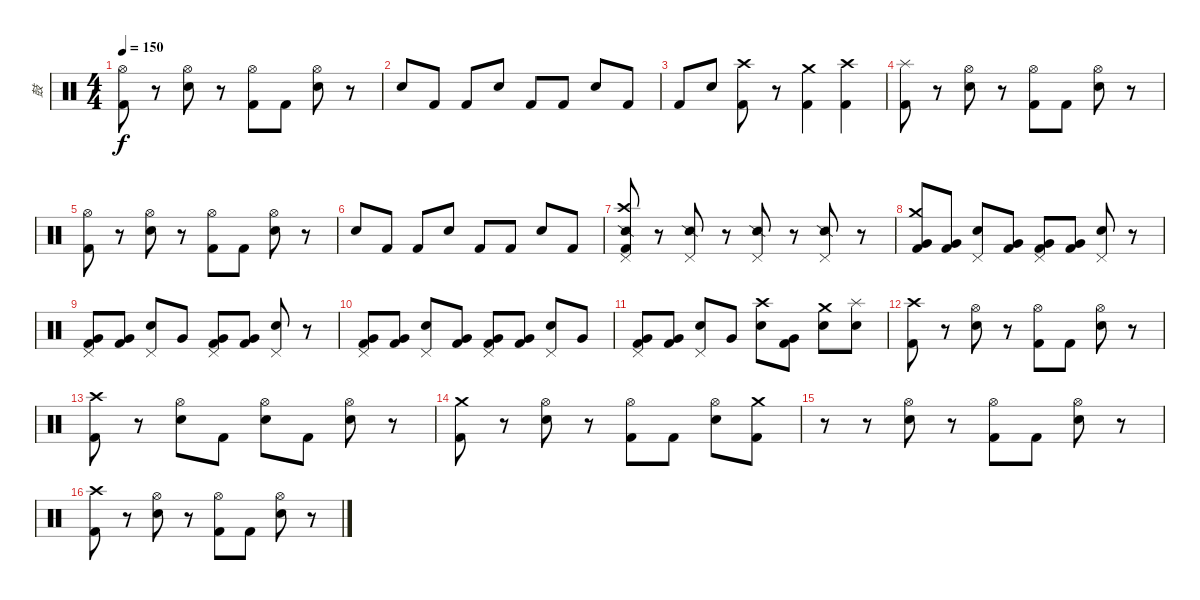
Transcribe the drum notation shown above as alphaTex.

\track ("鼓" "鼓") {instrument percussion}
\staff {score}
\articulation defaults
\ts (4 4)
\tempo 150
\clef neutral
\ks c
("Hi-Hat (open)" "Kick (hit) 2").8{dy f} r.8 ("Hi-Hat (open)" "Electric Snare (hit)").8 r.8 ("Hi-Hat (open)" "Kick (hit) 2").8 "Kick (hit) 2".8 ("Hi-Hat (open)" "Electric Snare (hit)").8 r.8 |
"Electric Snare (hit)".8 "Kick (hit) 2".8 "Kick (hit) 2".8 "Electric Snare (hit)".8 "Kick (hit) 2".8 "Kick (hit) 2".8 "Electric Snare (hit)".8 "Kick (hit) 2".8 |
"Kick (hit) 2".8 "Electric Snare (hit)".8 ("Crash high (hit)" "Kick (hit) 2").8 r.8 ("Crash medium (hit)" "Kick (hit) 2").4 ("Crash high (hit)" "Kick (hit) 2").4 |
("Splash (hit)" "Kick (hit) 2").8 r.8 ("Hi-Hat (open)" "Electric Snare (hit)").8 r.8 ("Hi-Hat (open)" "Kick (hit) 2").8 "Kick (hit) 2".8 ("Hi-Hat (open)" "Electric Snare (hit)").8 r.8 |
("Hi-Hat (open)" "Kick (hit) 2").8 r.8 ("Hi-Hat (open)" "Electric Snare (hit)").8 r.8 ("Hi-Hat (open)" "Kick (hit) 2").8 "Kick (hit) 2".8 ("Hi-Hat (open)" "Electric Snare (hit)").8 r.8 |
"Electric Snare (hit)".8 "Kick (hit) 2".8 "Kick (hit) 2".8 "Electric Snare (hit)".8 "Kick (hit) 2".8 "Kick (hit) 2".8 "Electric Snare (hit)".8 "Kick (hit) 2".8 |
("Crash high (hit)" "Snare (side stick) 2" "Kick (hit) 2" "Pedal Hi-Hat (hit)").8 r.8 ("Snare (side stick) 2" "Pedal Hi-Hat (hit)").8 r.8 ("Snare (side stick) 2" "Pedal Hi-Hat (hit)").8 r.8 ("Snare (side stick) 2" "Pedal Hi-Hat (hit)").8 r.8 |
("Crash medium (hit)" "Very Low Tom (hit)" "Kick (hit) 2").8 ("Very Low Tom (hit)" "Kick (hit) 2").8 ("Pedal Hi-Hat (hit)" "Electric Snare (hit)").8 ("Very Low Tom (hit)" "Kick (hit) 2").8 ("Pedal Hi-Hat (hit)" "Very Low Tom (hit)" "Kick (hit) 2").8 ("Very Low Tom (hit)" "Kick (hit) 2").8 ("Pedal Hi-Hat (hit)" "Electric Snare (hit)").8 r.8 |
("Pedal Hi-Hat (hit)" "Very Low Tom (hit)" "Kick (hit) 2").8 ("Very Low Tom (hit)" "Kick (hit) 2").8 ("Pedal Hi-Hat (hit)" "Electric Snare (hit)").8 "Very Low Tom (hit)".8 ("Pedal Hi-Hat (hit)" "Very Low Tom (hit)" "Kick (hit) 2").8 ("Very Low Tom (hit)" "Kick (hit) 2").8 ("Pedal Hi-Hat (hit)" "Electric Snare (hit)").8 r.8 |
("Pedal Hi-Hat (hit)" "Very Low Tom (hit)" "Kick (hit) 2").8 ("Very Low Tom (hit)" "Kick (hit) 2").8 ("Pedal Hi-Hat (hit)" "Electric Snare (hit)").8 ("Very Low Tom (hit)" "Kick (hit) 2").8 ("Pedal Hi-Hat (hit)" "Very Low Tom (hit)" "Kick (hit) 2").8 ("Very Low Tom (hit)" "Kick (hit) 2").8 ("Pedal Hi-Hat (hit)" "Electric Snare (hit)").8 "Very Low Tom (hit)".8 |
("Pedal Hi-Hat (hit)" "Very Low Tom (hit)" "Kick (hit) 2").8 ("Very Low Tom (hit)" "Kick (hit) 2").8 ("Pedal Hi-Hat (hit)" "Electric Snare (hit)").8 "Very Low Tom (hit)".8 ("Crash high (hit)" "Electric Snare (hit)").8 ("Very Low Tom (hit)" "Kick (hit) 2").8 ("Crash medium (hit)" "Electric Snare (hit)").8 ("Splash (hit)" "Electric Snare (hit)").8 |
("Crash high (hit)" "Kick (hit) 2").8 r.8 ("Hi-Hat (open)" "Electric Snare (hit)").8 r.8 ("Hi-Hat (open)" "Kick (hit) 2").8 "Kick (hit) 2".8 ("Hi-Hat (open)" "Electric Snare (hit)").8 r.8 |
("Crash high (hit)" "Kick (hit) 2").8 r.8 ("Hi-Hat (open)" "Electric Snare (hit)").8 "Kick (hit) 2".8 ("Hi-Hat (open)" "Electric Snare (hit)").8 "Kick (hit) 2".8 ("Hi-Hat (open)" "Electric Snare (hit)").8 r.8 |
("Crash medium (hit)" "Kick (hit) 2").8 r.8 ("Hi-Hat (open)" "Electric Snare (hit)").8 r.8 ("Hi-Hat (open)" "Kick (hit) 2").8 "Kick (hit) 2".8 ("Hi-Hat (open)" "Electric Snare (hit)").8 ("Crash medium (hit)" "Kick (hit) 2").8 |
r.8 r.8 ("Hi-Hat (open)" "Electric Snare (hit)").8 r.8 ("Hi-Hat (open)" "Kick (hit) 2").8 "Kick (hit) 2".8 ("Hi-Hat (open)" "Electric Snare (hit)").8 r.8 |
("Crash high (hit)" "Kick (hit) 2").8 r.8 ("Hi-Hat (open)" "Electric Snare (hit)").8 r.8 ("Hi-Hat (open)" "Kick (hit) 2").8 "Kick (hit) 2".8 ("Hi-Hat (open)" "Electric Snare (hit)").8 r.8
